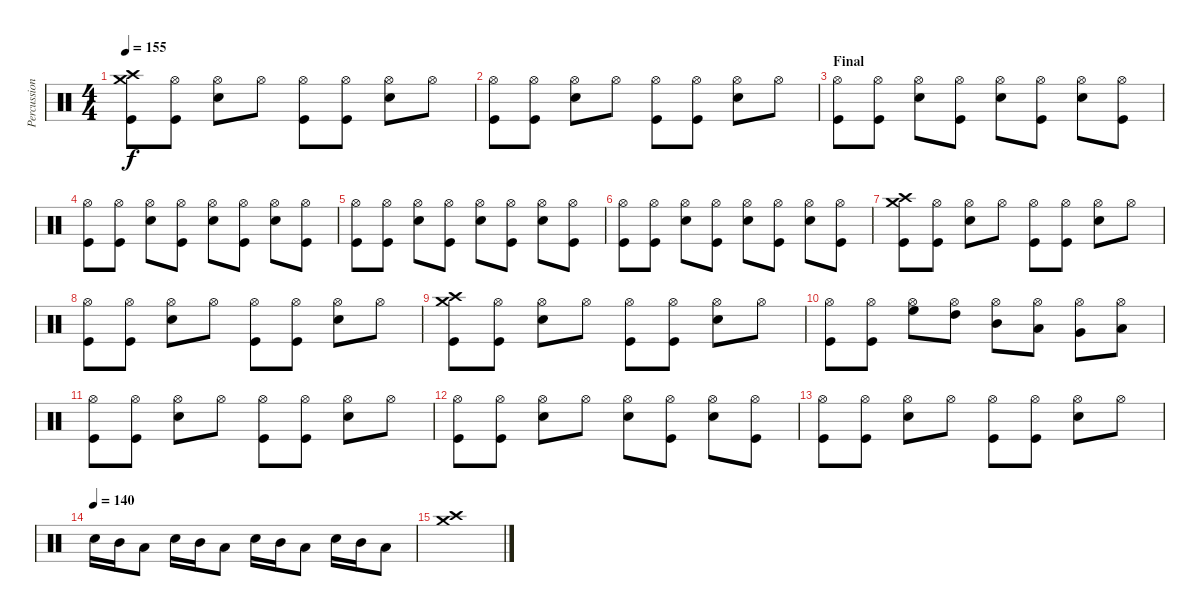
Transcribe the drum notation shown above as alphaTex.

\track ("Percussions" "Percussion") {instrument percussion}
\staff {score}
\articulation defaults
\ts (4 4)
\tempo 155
\clef neutral
\ks c
("Crash high (hit)" "Crash medium (hit)" "Kick (hit)").8{dy f} ("Hi-Hat (open)" "Kick (hit)").8 ("Hi-Hat (open)" "Snare (hit) 2").8 "Hi-Hat (open)".8 ("Hi-Hat (open)" "Kick (hit)").8 ("Hi-Hat (open)" "Kick (hit)").8 ("Hi-Hat (open)" "Snare (hit) 2").8 "Hi-Hat (open)".8 |
("Hi-Hat (open)" "Kick (hit)").8 ("Hi-Hat (open)" "Kick (hit)").8 ("Hi-Hat (open)" "Snare (hit) 2").8 "Hi-Hat (open)".8 ("Hi-Hat (open)" "Kick (hit)").8 ("Hi-Hat (open)" "Kick (hit)").8 ("Hi-Hat (open)" "Snare (hit) 2").8 "Hi-Hat (open)".8 |
\section ("" "Final")
("Hi-Hat (open)" "Kick (hit)").8 ("Hi-Hat (open)" "Kick (hit)").8 ("Hi-Hat (open)" "Snare (hit) 2").8 ("Hi-Hat (open)" "Kick (hit)").8 ("Hi-Hat (open)" "Snare (hit) 2").8 ("Hi-Hat (open)" "Kick (hit)").8 ("Hi-Hat (open)" "Snare (hit) 2").8 ("Hi-Hat (open)" "Kick (hit)").8 |
("Hi-Hat (open)" "Kick (hit)").8 ("Hi-Hat (open)" "Kick (hit)").8 ("Hi-Hat (open)" "Snare (hit) 2").8 ("Hi-Hat (open)" "Kick (hit)").8 ("Hi-Hat (open)" "Snare (hit) 2").8 ("Hi-Hat (open)" "Kick (hit)").8 ("Hi-Hat (open)" "Snare (hit) 2").8 ("Hi-Hat (open)" "Kick (hit)").8 |
("Hi-Hat (open)" "Kick (hit)").8 ("Hi-Hat (open)" "Kick (hit)").8 ("Hi-Hat (open)" "Snare (hit) 2").8 ("Hi-Hat (open)" "Kick (hit)").8 ("Hi-Hat (open)" "Snare (hit) 2").8 ("Hi-Hat (open)" "Kick (hit)").8 ("Hi-Hat (open)" "Snare (hit) 2").8 ("Hi-Hat (open)" "Kick (hit)").8 |
("Hi-Hat (open)" "Kick (hit)").8 ("Hi-Hat (open)" "Kick (hit)").8 ("Hi-Hat (open)" "Snare (hit) 2").8 ("Hi-Hat (open)" "Kick (hit)").8 ("Hi-Hat (open)" "Snare (hit) 2").8 ("Hi-Hat (open)" "Kick (hit)").8 ("Hi-Hat (open)" "Snare (hit) 2").8 ("Hi-Hat (open)" "Kick (hit)").8 |
("Crash high (hit)" "Crash medium (hit)" "Kick (hit)").8 ("Hi-Hat (open)" "Kick (hit)").8 ("Hi-Hat (open)" "Snare (hit) 2").8 "Hi-Hat (open)".8 ("Hi-Hat (open)" "Kick (hit)").8 ("Hi-Hat (open)" "Kick (hit)").8 ("Hi-Hat (open)" "Snare (hit) 2").8 "Hi-Hat (open)".8 |
("Hi-Hat (open)" "Kick (hit)").8 ("Hi-Hat (open)" "Kick (hit)").8 ("Hi-Hat (open)" "Snare (hit) 2").8 "Hi-Hat (open)".8 ("Hi-Hat (open)" "Kick (hit)").8 ("Hi-Hat (open)" "Kick (hit)").8 ("Hi-Hat (open)" "Snare (hit) 2").8 "Hi-Hat (open)".8 |
("Crash high (hit)" "Crash medium (hit)" "Kick (hit)").8 ("Hi-Hat (open)" "Kick (hit)").8 ("Hi-Hat (open)" "Snare (hit) 2").8 "Hi-Hat (open)".8 ("Hi-Hat (open)" "Kick (hit)").8 ("Hi-Hat (open)" "Kick (hit)").8 ("Hi-Hat (open)" "Snare (hit) 2").8 "Hi-Hat (open)".8 |
("Hi-Hat (open)" "Kick (hit)").8 ("Hi-Hat (open)" "Kick (hit)").8 ("Hi-Hat (open)" "High Floor Tom (hit)").8 ("Hi-Hat (open)" "High Tom (hit)").8 ("Hi-Hat (open)" "Mid Tom (hit)").8 ("Hi-Hat (open)" "Low Tom (hit)").8 ("Hi-Hat (open)" "Very Low Tom (hit)").8 ("Hi-Hat (open)" "Low Floor Tom (hit)").8 |
("Hi-Hat (open)" "Kick (hit)").8 ("Hi-Hat (open)" "Kick (hit)").8 ("Hi-Hat (open)" "Snare (hit) 2").8 "Hi-Hat (open)".8 ("Hi-Hat (open)" "Kick (hit)").8 ("Hi-Hat (open)" "Kick (hit)").8 ("Hi-Hat (open)" "Snare (hit) 2").8 "Hi-Hat (open)".8 |
("Hi-Hat (open)" "Kick (hit)").8 ("Hi-Hat (open)" "Kick (hit)").8 ("Hi-Hat (open)" "Snare (hit) 2").8 "Hi-Hat (open)".8 ("Hi-Hat (open)" "Snare (hit) 2").8 ("Hi-Hat (open)" "Kick (hit)").8 ("Hi-Hat (open)" "Snare (hit) 2").8 ("Hi-Hat (open)" "Kick (hit)").8 |
("Hi-Hat (open)" "Kick (hit)").8 ("Hi-Hat (open)" "Kick (hit)").8 ("Hi-Hat (open)" "Snare (hit) 2").8 "Hi-Hat (open)".8 ("Hi-Hat (open)" "Kick (hit)").8 ("Hi-Hat (open)" "Kick (hit)").8 ("Hi-Hat (open)" "Snare (hit) 2").8 "Hi-Hat (open)".8 |
\tempo (140)
"Snare (hit) 2".16 "Mid Tom (hit)".16 "Low Tom (hit)".8 "Snare (hit) 2".16 "Mid Tom (hit)".16 "Low Tom (hit)".8 "Snare (hit) 2".16 "Mid Tom (hit)".16 "Low Tom (hit)".8 "Snare (hit) 2".16 "Mid Tom (hit)".16 "Low Tom (hit)".8 |
("Crash medium (hit)" "Crash high (hit)").1
